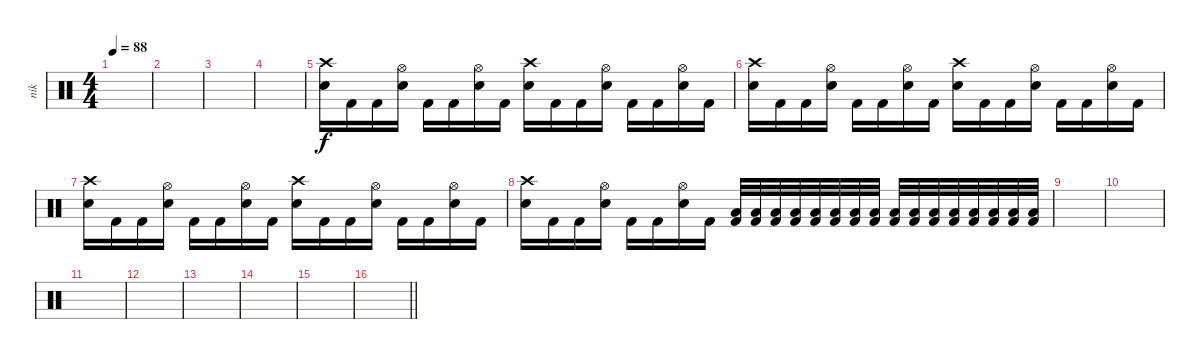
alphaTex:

\track ("nik" "nik") {solo instrument percussion}
\staff {score}
\articulation defaults
\ts (4 4)
\tempo 88
\clef neutral
\ks c
|
|
|
|
("Crash high (hit)" "Snare (hit) 2").16{volume 13} "Kick (hit) 2".16 "Kick (hit) 2".16 ("Hi-Hat (open)" "Snare (hit) 2").16 "Kick (hit) 2".16 "Kick (hit) 2".16 ("Hi-Hat (open)" "Snare (hit) 2").16 "Kick (hit) 2".16 ("Crash high (hit)" "Snare (hit) 2").16 "Kick (hit) 2".16 "Kick (hit) 2".16 ("Hi-Hat (open)" "Snare (hit) 2").16 "Kick (hit) 2".16 "Kick (hit) 2".16 ("Hi-Hat (open)" "Snare (hit) 2").16 "Kick (hit) 2".16 |
("Crash high (hit)" "Snare (hit) 2").16 "Kick (hit) 2".16 "Kick (hit) 2".16 ("Hi-Hat (open)" "Snare (hit) 2").16 "Kick (hit) 2".16 "Kick (hit) 2".16 ("Hi-Hat (open)" "Snare (hit) 2").16 "Kick (hit) 2".16 ("Crash high (hit)" "Snare (hit) 2").16 "Kick (hit) 2".16 "Kick (hit) 2".16 ("Hi-Hat (open)" "Snare (hit) 2").16 "Kick (hit) 2".16 "Kick (hit) 2".16 ("Hi-Hat (open)" "Snare (hit) 2").16 "Kick (hit) 2".16 |
("Crash high (hit)" "Snare (hit) 2").16 "Kick (hit) 2".16 "Kick (hit) 2".16 ("Hi-Hat (open)" "Snare (hit) 2").16 "Kick (hit) 2".16 "Kick (hit) 2".16 ("Hi-Hat (open)" "Snare (hit) 2").16 "Kick (hit) 2".16 ("Crash high (hit)" "Snare (hit) 2").16 "Kick (hit) 2".16 "Kick (hit) 2".16 ("Hi-Hat (open)" "Snare (hit) 2").16 "Kick (hit) 2".16 "Kick (hit) 2".16 ("Hi-Hat (open)" "Snare (hit) 2").16 "Kick (hit) 2".16 |
("Crash high (hit)" "Snare (hit) 2").16 "Kick (hit) 2".16 "Kick (hit) 2".16 ("Hi-Hat (open)" "Snare (hit) 2").16 "Kick (hit) 2".16 "Kick (hit) 2".16 ("Hi-Hat (open)" "Snare (hit) 2").16 "Kick (hit) 2".16 ("Low Tom (hit)" "Kick (hit) 2").32 ("Low Tom (hit)" "Kick (hit) 2").32 ("Low Tom (hit)" "Kick (hit) 2").32 ("Low Tom (hit)" "Kick (hit) 2").32 ("Low Tom (hit)" "Kick (hit) 2").32 ("Low Tom (hit)" "Kick (hit) 2").32 ("Low Tom (hit)" "Kick (hit) 2").32 ("Low Tom (hit)" "Kick (hit) 2").32 ("Low Tom (hit)" "Kick (hit) 2").32 ("Low Tom (hit)" "Kick (hit) 2").32 ("Low Tom (hit)" "Kick (hit) 2").32 ("Low Tom (hit)" "Kick (hit) 2").32 ("Low Tom (hit)" "Kick (hit) 2").32 ("Low Tom (hit)" "Kick (hit) 2").32 ("Low Tom (hit)" "Kick (hit) 2").32 ("Low Tom (hit)" "Kick (hit) 2").32 |
|
|
|
|
|
|
|
\barLineRight lightlight
